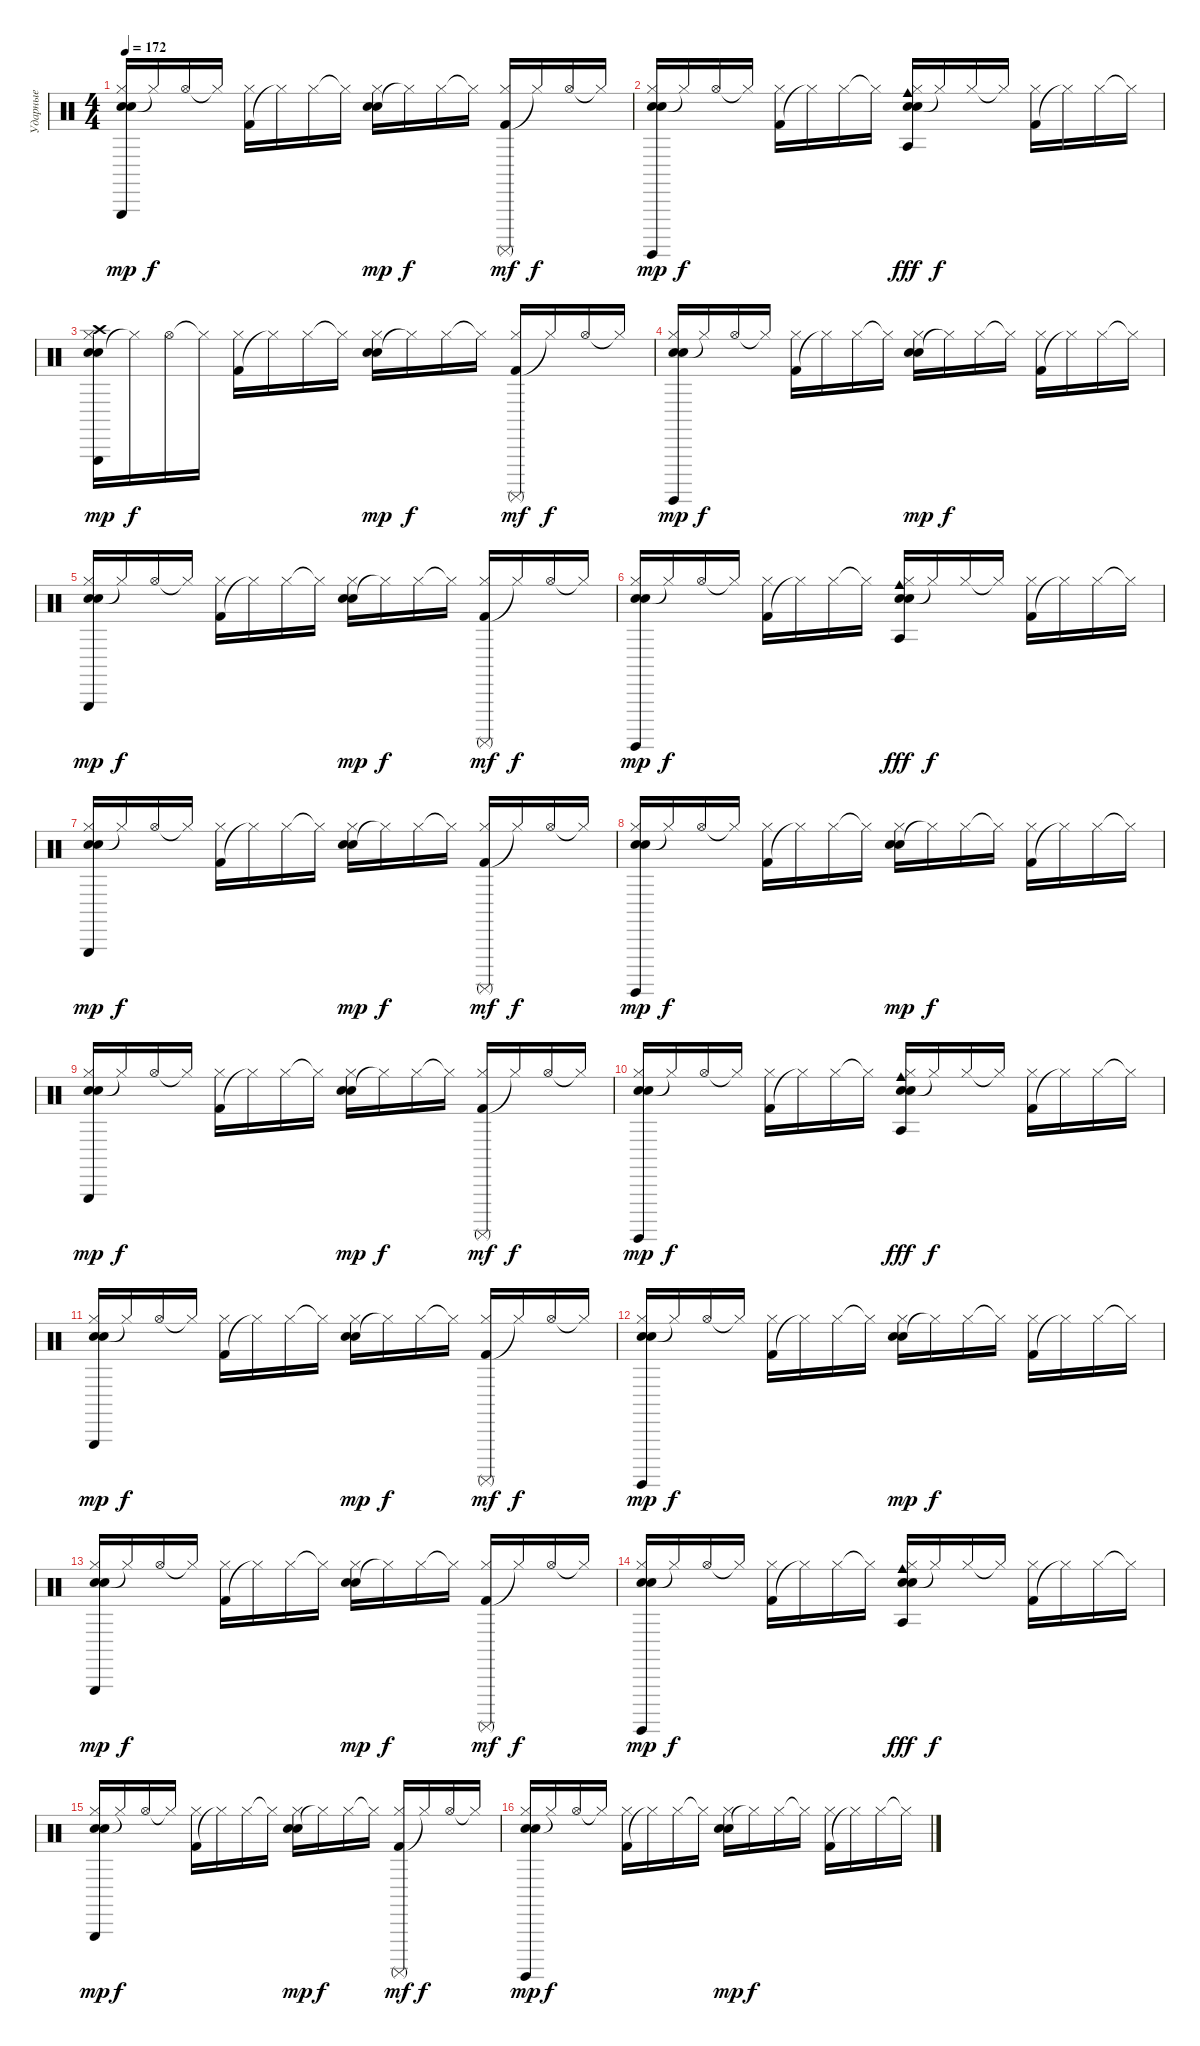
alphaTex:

\track ("Ударные" "Ударные") {instrument percussion}
\staff {score}
\articulation defaults
\ts (4 4)
\tempo 172
\clef neutral
\ks c
("Snare (hit) 2" "Electric Snare (hit)" "Hi-Hat (closed)" "Triangle (hit)").16{dy mp} "Hi-Hat (closed)"{t}.16{dy f} "Hi-Hat (open)".16 "Hi-Hat (closed)"{t}.16 ("Kick (hit) 2" "Hi-Hat (closed)").16 "Hi-Hat (closed)"{t}.16 "Hi-Hat (closed)".16 "Hi-Hat (closed)"{t}.16 ("Snare (hit) 2" "Electric Snare (hit)" "Hi-Hat (closed)").16{dy mp} "Hi-Hat (closed)"{t}.16{dy f} "Hi-Hat (closed)".16 "Hi-Hat (closed)"{t}.16 ("Kick (hit) 2" "Hi-Hat (closed)" "Surdo (mute)").16{dy mf} "Hi-Hat (closed)"{t}.16{dy f} "Hi-Hat (open)".16 "Hi-Hat (closed)"{t}.16 |
("Snare (hit) 2" "Electric Snare (hit)" "Hi-Hat (closed)" "Surdo (hit)").16{dy mp} "Hi-Hat (closed)"{t}.16{dy f} "Hi-Hat (open)".16 "Hi-Hat (closed)"{t}.16 ("Kick (hit) 2" "Hi-Hat (closed)").16 "Hi-Hat (closed)"{t}.16 "Hi-Hat (closed)".16 "Hi-Hat (closed)"{t}.16 ("Snare (hit) 2" "Electric Snare (hit)" "Hi-Hat (closed)" "Cowbell medium (hit)" "Agogo tow (hit)").16{dy fff} "Hi-Hat (closed)"{t}.16{dy f} "Hi-Hat (closed)".16 "Hi-Hat (closed)"{t}.16 ("Kick (hit) 2" "Hi-Hat (closed)").16 "Hi-Hat (closed)"{t}.16 "Hi-Hat (closed)".16 "Hi-Hat (closed)"{t}.16 |
("Snare (hit) 2" "Electric Snare (hit)" "Hi-Hat (closed)" "Triangle (hit)" "Crash high (hit)").16{dy mp} "Hi-Hat (closed)"{t}.16{dy f} "Hi-Hat (open)".16 "Hi-Hat (closed)"{t}.16 ("Kick (hit) 2" "Hi-Hat (closed)").16 "Hi-Hat (closed)"{t}.16 "Hi-Hat (closed)".16 "Hi-Hat (closed)"{t}.16 ("Snare (hit) 2" "Electric Snare (hit)" "Hi-Hat (closed)").16{dy mp} "Hi-Hat (closed)"{t}.16{dy f} "Hi-Hat (closed)".16 "Hi-Hat (closed)"{t}.16 ("Kick (hit) 2" "Hi-Hat (closed)" "Surdo (mute)").16{dy mf} "Hi-Hat (closed)"{t}.16{dy f} "Hi-Hat (open)".16 "Hi-Hat (closed)"{t}.16 |
("Snare (hit) 2" "Electric Snare (hit)" "Hi-Hat (closed)" "Surdo (hit)").16{dy mp} "Hi-Hat (closed)"{t}.16{dy f} "Hi-Hat (open)".16 "Hi-Hat (closed)"{t}.16 ("Kick (hit) 2" "Hi-Hat (closed)").16 "Hi-Hat (closed)"{t}.16 "Hi-Hat (closed)".16 "Hi-Hat (closed)"{t}.16 ("Snare (hit) 2" "Electric Snare (hit)" "Hi-Hat (closed)").16{dy mp} "Hi-Hat (closed)"{t}.16{dy f} "Hi-Hat (closed)".16 "Hi-Hat (closed)"{t}.16 ("Kick (hit) 2" "Hi-Hat (closed)").16 "Hi-Hat (closed)"{t}.16 "Hi-Hat (closed)".16 "Hi-Hat (closed)"{t}.16 |
("Snare (hit) 2" "Electric Snare (hit)" "Hi-Hat (closed)" "Triangle (hit)").16{dy mp} "Hi-Hat (closed)"{t}.16{dy f} "Hi-Hat (open)".16 "Hi-Hat (closed)"{t}.16 ("Kick (hit) 2" "Hi-Hat (closed)").16 "Hi-Hat (closed)"{t}.16 "Hi-Hat (closed)".16 "Hi-Hat (closed)"{t}.16 ("Snare (hit) 2" "Electric Snare (hit)" "Hi-Hat (closed)").16{dy mp} "Hi-Hat (closed)"{t}.16{dy f} "Hi-Hat (closed)".16 "Hi-Hat (closed)"{t}.16 ("Kick (hit) 2" "Hi-Hat (closed)" "Surdo (mute)").16{dy mf} "Hi-Hat (closed)"{t}.16{dy f} "Hi-Hat (open)".16 "Hi-Hat (closed)"{t}.16 |
("Snare (hit) 2" "Electric Snare (hit)" "Hi-Hat (closed)" "Surdo (hit)").16{dy mp} "Hi-Hat (closed)"{t}.16{dy f} "Hi-Hat (open)".16 "Hi-Hat (closed)"{t}.16 ("Kick (hit) 2" "Hi-Hat (closed)").16 "Hi-Hat (closed)"{t}.16 "Hi-Hat (closed)".16 "Hi-Hat (closed)"{t}.16 ("Snare (hit) 2" "Electric Snare (hit)" "Hi-Hat (closed)" "Cowbell medium (hit)" "Agogo tow (hit)").16{dy fff} "Hi-Hat (closed)"{t}.16{dy f} "Hi-Hat (closed)".16 "Hi-Hat (closed)"{t}.16 ("Kick (hit) 2" "Hi-Hat (closed)").16 "Hi-Hat (closed)"{t}.16 "Hi-Hat (closed)".16 "Hi-Hat (closed)"{t}.16 |
("Snare (hit) 2" "Electric Snare (hit)" "Hi-Hat (closed)" "Triangle (hit)").16{dy mp} "Hi-Hat (closed)"{t}.16{dy f} "Hi-Hat (open)".16 "Hi-Hat (closed)"{t}.16 ("Kick (hit) 2" "Hi-Hat (closed)").16 "Hi-Hat (closed)"{t}.16 "Hi-Hat (closed)".16 "Hi-Hat (closed)"{t}.16 ("Snare (hit) 2" "Electric Snare (hit)" "Hi-Hat (closed)").16{dy mp} "Hi-Hat (closed)"{t}.16{dy f} "Hi-Hat (closed)".16 "Hi-Hat (closed)"{t}.16 ("Kick (hit) 2" "Hi-Hat (closed)" "Surdo (mute)").16{dy mf} "Hi-Hat (closed)"{t}.16{dy f} "Hi-Hat (open)".16 "Hi-Hat (closed)"{t}.16 |
("Snare (hit) 2" "Electric Snare (hit)" "Hi-Hat (closed)" "Surdo (hit)").16{dy mp} "Hi-Hat (closed)"{t}.16{dy f} "Hi-Hat (open)".16 "Hi-Hat (closed)"{t}.16 ("Kick (hit) 2" "Hi-Hat (closed)").16 "Hi-Hat (closed)"{t}.16 "Hi-Hat (closed)".16 "Hi-Hat (closed)"{t}.16 ("Snare (hit) 2" "Electric Snare (hit)" "Hi-Hat (closed)").16{dy mp} "Hi-Hat (closed)"{t}.16{dy f} "Hi-Hat (closed)".16 "Hi-Hat (closed)"{t}.16 ("Kick (hit) 2" "Hi-Hat (closed)").16 "Hi-Hat (closed)"{t}.16 "Hi-Hat (closed)".16 "Hi-Hat (closed)"{t}.16 |
("Snare (hit) 2" "Electric Snare (hit)" "Hi-Hat (closed)" "Triangle (hit)").16{dy mp} "Hi-Hat (closed)"{t}.16{dy f} "Hi-Hat (open)".16 "Hi-Hat (closed)"{t}.16 ("Kick (hit) 2" "Hi-Hat (closed)").16 "Hi-Hat (closed)"{t}.16 "Hi-Hat (closed)".16 "Hi-Hat (closed)"{t}.16 ("Snare (hit) 2" "Electric Snare (hit)" "Hi-Hat (closed)").16{dy mp} "Hi-Hat (closed)"{t}.16{dy f} "Hi-Hat (closed)".16 "Hi-Hat (closed)"{t}.16 ("Kick (hit) 2" "Hi-Hat (closed)" "Surdo (mute)").16{dy mf} "Hi-Hat (closed)"{t}.16{dy f} "Hi-Hat (open)".16 "Hi-Hat (closed)"{t}.16 |
("Snare (hit) 2" "Electric Snare (hit)" "Hi-Hat (closed)" "Surdo (hit)").16{dy mp} "Hi-Hat (closed)"{t}.16{dy f} "Hi-Hat (open)".16 "Hi-Hat (closed)"{t}.16 ("Kick (hit) 2" "Hi-Hat (closed)").16 "Hi-Hat (closed)"{t}.16 "Hi-Hat (closed)".16 "Hi-Hat (closed)"{t}.16 ("Snare (hit) 2" "Electric Snare (hit)" "Hi-Hat (closed)" "Cowbell medium (hit)" "Agogo tow (hit)").16{dy fff} "Hi-Hat (closed)"{t}.16{dy f} "Hi-Hat (closed)".16 "Hi-Hat (closed)"{t}.16 ("Kick (hit) 2" "Hi-Hat (closed)").16 "Hi-Hat (closed)"{t}.16 "Hi-Hat (closed)".16 "Hi-Hat (closed)"{t}.16 |
("Snare (hit) 2" "Electric Snare (hit)" "Hi-Hat (closed)" "Triangle (hit)").16{dy mp} "Hi-Hat (closed)"{t}.16{dy f} "Hi-Hat (open)".16 "Hi-Hat (closed)"{t}.16 ("Kick (hit) 2" "Hi-Hat (closed)").16 "Hi-Hat (closed)"{t}.16 "Hi-Hat (closed)".16 "Hi-Hat (closed)"{t}.16 ("Snare (hit) 2" "Electric Snare (hit)" "Hi-Hat (closed)").16{dy mp} "Hi-Hat (closed)"{t}.16{dy f} "Hi-Hat (closed)".16 "Hi-Hat (closed)"{t}.16 ("Kick (hit) 2" "Hi-Hat (closed)" "Surdo (mute)").16{dy mf} "Hi-Hat (closed)"{t}.16{dy f} "Hi-Hat (open)".16 "Hi-Hat (closed)"{t}.16 |
("Snare (hit) 2" "Electric Snare (hit)" "Hi-Hat (closed)" "Surdo (hit)").16{dy mp} "Hi-Hat (closed)"{t}.16{dy f} "Hi-Hat (open)".16 "Hi-Hat (closed)"{t}.16 ("Kick (hit) 2" "Hi-Hat (closed)").16 "Hi-Hat (closed)"{t}.16 "Hi-Hat (closed)".16 "Hi-Hat (closed)"{t}.16 ("Snare (hit) 2" "Electric Snare (hit)" "Hi-Hat (closed)").16{dy mp} "Hi-Hat (closed)"{t}.16{dy f} "Hi-Hat (closed)".16 "Hi-Hat (closed)"{t}.16 ("Kick (hit) 2" "Hi-Hat (closed)").16 "Hi-Hat (closed)"{t}.16 "Hi-Hat (closed)".16 "Hi-Hat (closed)"{t}.16 |
("Snare (hit) 2" "Electric Snare (hit)" "Hi-Hat (closed)" "Triangle (hit)").16{dy mp} "Hi-Hat (closed)"{t}.16{dy f} "Hi-Hat (open)".16 "Hi-Hat (closed)"{t}.16 ("Kick (hit) 2" "Hi-Hat (closed)").16 "Hi-Hat (closed)"{t}.16 "Hi-Hat (closed)".16 "Hi-Hat (closed)"{t}.16 ("Snare (hit) 2" "Electric Snare (hit)" "Hi-Hat (closed)").16{dy mp} "Hi-Hat (closed)"{t}.16{dy f} "Hi-Hat (closed)".16 "Hi-Hat (closed)"{t}.16 ("Kick (hit) 2" "Hi-Hat (closed)" "Surdo (mute)").16{dy mf} "Hi-Hat (closed)"{t}.16{dy f} "Hi-Hat (open)".16 "Hi-Hat (closed)"{t}.16 |
("Snare (hit) 2" "Electric Snare (hit)" "Hi-Hat (closed)" "Surdo (hit)").16{dy mp} "Hi-Hat (closed)"{t}.16{dy f} "Hi-Hat (open)".16 "Hi-Hat (closed)"{t}.16 ("Kick (hit) 2" "Hi-Hat (closed)").16 "Hi-Hat (closed)"{t}.16 "Hi-Hat (closed)".16 "Hi-Hat (closed)"{t}.16 ("Snare (hit) 2" "Electric Snare (hit)" "Hi-Hat (closed)" "Cowbell medium (hit)" "Agogo tow (hit)").16{dy fff} "Hi-Hat (closed)"{t}.16{dy f} "Hi-Hat (closed)".16 "Hi-Hat (closed)"{t}.16 ("Kick (hit) 2" "Hi-Hat (closed)").16 "Hi-Hat (closed)"{t}.16 "Hi-Hat (closed)".16 "Hi-Hat (closed)"{t}.16 |
("Snare (hit) 2" "Electric Snare (hit)" "Hi-Hat (closed)" "Triangle (hit)").16{dy mp} "Hi-Hat (closed)"{t}.16{dy f} "Hi-Hat (open)".16 "Hi-Hat (closed)"{t}.16 ("Kick (hit) 2" "Hi-Hat (closed)").16 "Hi-Hat (closed)"{t}.16 "Hi-Hat (closed)".16 "Hi-Hat (closed)"{t}.16 ("Snare (hit) 2" "Electric Snare (hit)" "Hi-Hat (closed)").16{dy mp} "Hi-Hat (closed)"{t}.16{dy f} "Hi-Hat (closed)".16 "Hi-Hat (closed)"{t}.16 ("Kick (hit) 2" "Hi-Hat (closed)" "Surdo (mute)").16{dy mf} "Hi-Hat (closed)"{t}.16{dy f} "Hi-Hat (open)".16 "Hi-Hat (closed)"{t}.16 |
("Snare (hit) 2" "Electric Snare (hit)" "Hi-Hat (closed)" "Surdo (hit)").16{dy mp} "Hi-Hat (closed)"{t}.16{dy f} "Hi-Hat (open)".16 "Hi-Hat (closed)"{t}.16 ("Kick (hit) 2" "Hi-Hat (closed)").16 "Hi-Hat (closed)"{t}.16 "Hi-Hat (closed)".16 "Hi-Hat (closed)"{t}.16 ("Snare (hit) 2" "Electric Snare (hit)" "Hi-Hat (closed)").16{dy mp} "Hi-Hat (closed)"{t}.16{dy f} "Hi-Hat (closed)".16 "Hi-Hat (closed)"{t}.16 ("Kick (hit) 2" "Hi-Hat (closed)").16 "Hi-Hat (closed)"{t}.16 "Hi-Hat (closed)".16 "Hi-Hat (closed)"{t}.16
